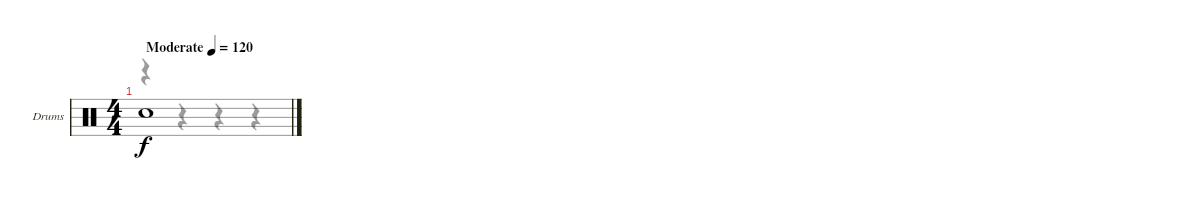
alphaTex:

\bracketExtendMode groupsimilarinstruments
\firstSystemTrackNameOrientation horizontal
\otherSystemsTrackNameOrientation horizontal
\track ("Drumkit" "Drums") {instrument percussion}
\staff {score}
\articulation defaults
\voice
\ts (4 4)
\beaming (8 2 2 2 2)
\tempo (120 "Moderate")
\clef neutral
\ks c "Snare (hit) 2".1{dy f}
\voice
\clef neutral
\ks c
r.4{dy mf} r.4 r.4 r.4
